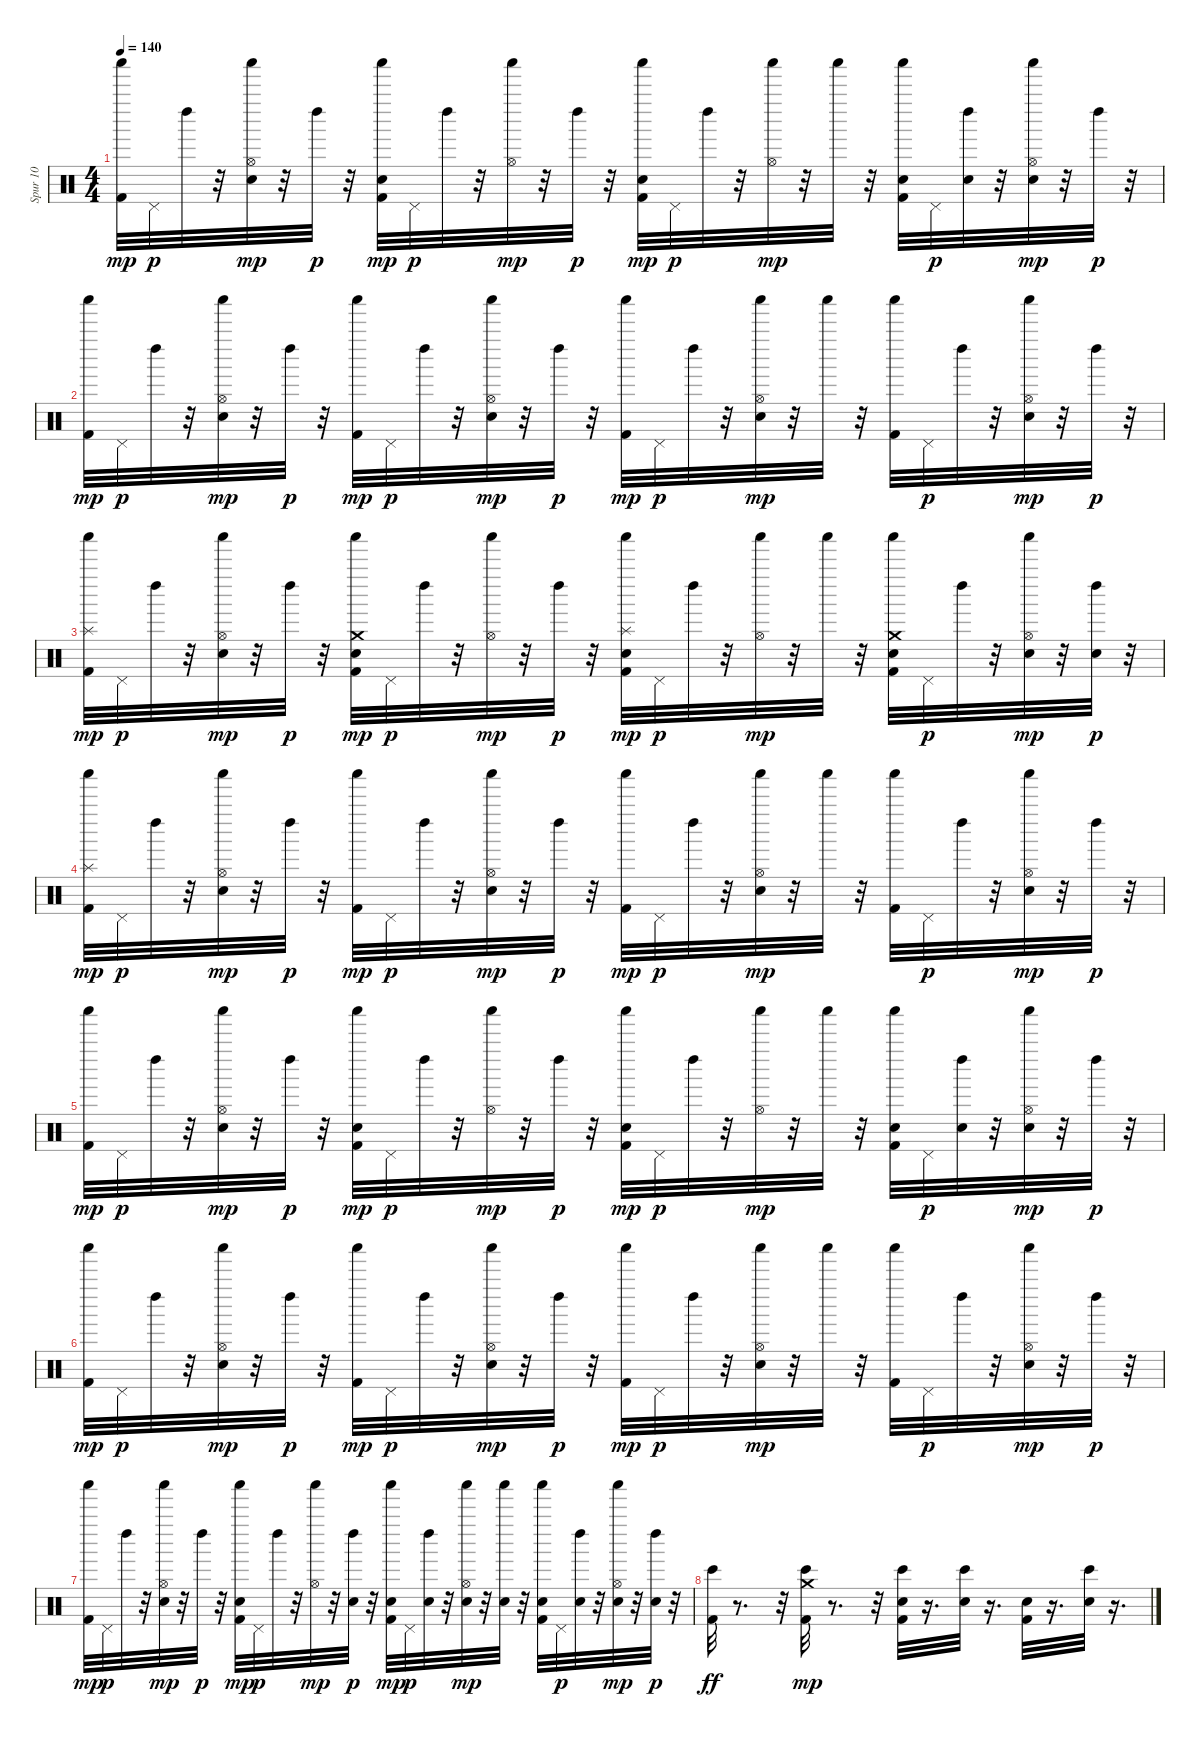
\track ("Spur 10" "Spur 10") {instrument percussion}
\staff {score}
\articulation defaults
\ts (4 4)
\tempo 140
\clef neutral
\ks c
("Kick (hit) 2" "Shaker (hit)").32{dy mp} "Pedal Hi-Hat (hit)".32{dy p} "Left Maraca (hit)".32 r.32 ("Hand Clap (hit)" "Hi-Hat (open)" "Shaker (hit)").32{dy mp} r.32 "Left Maraca (hit)".32{dy p} r.32 ("Kick (hit) 2" "Hand Clap (hit)" "Shaker (hit)").32{dy mp} "Pedal Hi-Hat (hit)".32{dy p} "Left Maraca (hit)".32 r.32 ("Hi-Hat (open)" "Shaker (hit)").32{dy mp} r.32 "Left Maraca (hit)".32{dy p} r.32 ("Kick (hit) 2" "Hand Clap (hit)" "Shaker (hit)").32{dy mp} "Pedal Hi-Hat (hit)".32{dy p} "Left Maraca (hit)".32 r.32 ("Hi-Hat (open)" "Shaker (hit)").32{dy mp} r.32 "Shaker (hit)".32 r.32 ("Kick (hit) 2" "Hand Clap (hit)" "Shaker (hit)").32 "Pedal Hi-Hat (hit)".32{dy p} ("Hand Clap (hit)" "Left Maraca (hit)").32 r.32 ("Hand Clap (hit)" "Hi-Hat (open)" "Shaker (hit)").32{dy mp} r.32 "Left Maraca (hit)".32{dy p} r.32 |
("Kick (hit) 2" "Shaker (hit)").32{dy mp} "Pedal Hi-Hat (hit)".32{dy p} "Left Maraca (hit)".32 r.32 ("Hand Clap (hit)" "Hi-Hat (open)" "Shaker (hit)").32{dy mp} r.32 "Left Maraca (hit)".32{dy p} r.32 ("Kick (hit) 2" "Shaker (hit)").32{dy mp} "Pedal Hi-Hat (hit)".32{dy p} "Left Maraca (hit)".32 r.32 ("Hand Clap (hit)" "Hi-Hat (open)" "Shaker (hit)").32{dy mp} r.32 "Left Maraca (hit)".32{dy p} r.32 ("Kick (hit) 2" "Shaker (hit)").32{dy mp} "Pedal Hi-Hat (hit)".32{dy p} "Left Maraca (hit)".32 r.32 ("Hand Clap (hit)" "Hi-Hat (open)" "Shaker (hit)").32{dy mp} r.32 "Shaker (hit)".32 r.32 ("Kick (hit) 2" "Shaker (hit)").32 "Pedal Hi-Hat (hit)".32{dy p} "Left Maraca (hit)".32 r.32 ("Hand Clap (hit)" "Hi-Hat (open)" "Shaker (hit)").32{dy mp} r.32 "Left Maraca (hit)".32{dy p} r.32 |
("Kick (hit) 2" "Splash (hit)" "Shaker (hit)").32{dy mp} "Pedal Hi-Hat (hit)".32{dy p} "Left Maraca (hit)".32 r.32 ("Hand Clap (hit)" "Hi-Hat (open)" "Shaker (hit)").32{dy mp} r.32 "Left Maraca (hit)".32{dy p} r.32 ("Kick (hit) 2" "Hand Clap (hit)" "Crash medium (hit)" "Shaker (hit)").32{dy mp} "Pedal Hi-Hat (hit)".32{dy p} "Left Maraca (hit)".32 r.32 ("Hi-Hat (open)" "Shaker (hit)").32{dy mp} r.32 "Left Maraca (hit)".32{dy p} r.32 ("Kick (hit) 2" "Hand Clap (hit)" "Splash (hit)" "Shaker (hit)").32{dy mp} "Pedal Hi-Hat (hit)".32{dy p} "Left Maraca (hit)".32 r.32 ("Hi-Hat (open)" "Shaker (hit)").32{dy mp} r.32 "Shaker (hit)".32 r.32 ("Kick (hit) 2" "Hand Clap (hit)" "Crash medium (hit)" "Shaker (hit)").32 "Pedal Hi-Hat (hit)".32{dy p} "Left Maraca (hit)".32 r.32 ("Hand Clap (hit)" "Hi-Hat (open)" "Shaker (hit)").32{dy mp} r.32 ("Hand Clap (hit)" "Left Maraca (hit)").32{dy p} r.32 |
("Kick (hit) 2" "Splash (hit)" "Shaker (hit)").32{dy mp} "Pedal Hi-Hat (hit)".32{dy p} "Left Maraca (hit)".32 r.32 ("Hand Clap (hit)" "Hi-Hat (open)" "Shaker (hit)").32{dy mp} r.32 "Left Maraca (hit)".32{dy p} r.32 ("Kick (hit) 2" "Shaker (hit)").32{dy mp} "Pedal Hi-Hat (hit)".32{dy p} "Left Maraca (hit)".32 r.32 ("Hand Clap (hit)" "Hi-Hat (open)" "Shaker (hit)").32{dy mp} r.32 "Left Maraca (hit)".32{dy p} r.32 ("Kick (hit) 2" "Shaker (hit)").32{dy mp} "Pedal Hi-Hat (hit)".32{dy p} "Left Maraca (hit)".32 r.32 ("Hand Clap (hit)" "Hi-Hat (open)" "Shaker (hit)").32{dy mp} r.32 "Shaker (hit)".32 r.32 ("Kick (hit) 2" "Shaker (hit)").32 "Pedal Hi-Hat (hit)".32{dy p} "Left Maraca (hit)".32 r.32 ("Hand Clap (hit)" "Hi-Hat (open)" "Shaker (hit)").32{dy mp} r.32 "Left Maraca (hit)".32{dy p} r.32 |
("Kick (hit) 2" "Shaker (hit)").32{dy mp} "Pedal Hi-Hat (hit)".32{dy p} "Left Maraca (hit)".32 r.32 ("Hand Clap (hit)" "Hi-Hat (open)" "Shaker (hit)").32{dy mp} r.32 "Left Maraca (hit)".32{dy p} r.32 ("Kick (hit) 2" "Hand Clap (hit)" "Shaker (hit)").32{dy mp} "Pedal Hi-Hat (hit)".32{dy p} "Left Maraca (hit)".32 r.32 ("Hi-Hat (open)" "Shaker (hit)").32{dy mp} r.32 "Left Maraca (hit)".32{dy p} r.32 ("Kick (hit) 2" "Hand Clap (hit)" "Shaker (hit)").32{dy mp} "Pedal Hi-Hat (hit)".32{dy p} "Left Maraca (hit)".32 r.32 ("Hi-Hat (open)" "Shaker (hit)").32{dy mp} r.32 "Shaker (hit)".32 r.32 ("Kick (hit) 2" "Hand Clap (hit)" "Shaker (hit)").32 "Pedal Hi-Hat (hit)".32{dy p} ("Hand Clap (hit)" "Left Maraca (hit)").32 r.32 ("Hand Clap (hit)" "Hi-Hat (open)" "Shaker (hit)").32{dy mp} r.32 "Left Maraca (hit)".32{dy p} r.32 |
("Kick (hit) 2" "Shaker (hit)").32{dy mp} "Pedal Hi-Hat (hit)".32{dy p} "Left Maraca (hit)".32 r.32 ("Hand Clap (hit)" "Hi-Hat (open)" "Shaker (hit)").32{dy mp} r.32 "Left Maraca (hit)".32{dy p} r.32 ("Kick (hit) 2" "Shaker (hit)").32{dy mp} "Pedal Hi-Hat (hit)".32{dy p} "Left Maraca (hit)".32 r.32 ("Hand Clap (hit)" "Hi-Hat (open)" "Shaker (hit)").32{dy mp} r.32 "Left Maraca (hit)".32{dy p} r.32 ("Kick (hit) 2" "Shaker (hit)").32{dy mp} "Pedal Hi-Hat (hit)".32{dy p} "Left Maraca (hit)".32 r.32 ("Hand Clap (hit)" "Hi-Hat (open)" "Shaker (hit)").32{dy mp} r.32 "Shaker (hit)".32 r.32 ("Kick (hit) 2" "Shaker (hit)").32 "Pedal Hi-Hat (hit)".32{dy p} "Left Maraca (hit)".32 r.32 ("Hand Clap (hit)" "Hi-Hat (open)" "Shaker (hit)").32{dy mp} r.32 "Left Maraca (hit)".32{dy p} r.32 |
("Kick (hit) 2" "Shaker (hit)").32{dy mp} "Pedal Hi-Hat (hit)".32{dy p} "Left Maraca (hit)".32 r.32 ("Hand Clap (hit)" "Hi-Hat (open)" "Shaker (hit)").32{dy mp} r.32 "Left Maraca (hit)".32{dy p} r.32 ("Kick (hit) 2" "Hand Clap (hit)" "Shaker (hit)").32{dy mp} "Pedal Hi-Hat (hit)".32{dy p} "Left Maraca (hit)".32 r.32 ("Hi-Hat (open)" "Shaker (hit)").32{dy mp} r.32 ("Hand Clap (hit)" "Left Maraca (hit)").32{dy p} r.32 ("Kick (hit) 2" "Hand Clap (hit)" "Shaker (hit)").32{dy mp} "Pedal Hi-Hat (hit)".32{dy p} ("Hand Clap (hit)" "Left Maraca (hit)").32 r.32 ("Hand Clap (hit)" "Hi-Hat (open)" "Shaker (hit)").32{dy mp} r.32 ("Hand Clap (hit)" "Shaker (hit)").32 r.32 ("Kick (hit) 2" "Hand Clap (hit)" "Shaker (hit)").32 "Pedal Hi-Hat (hit)".32{dy p} ("Hand Clap (hit)" "Left Maraca (hit)").32 r.32 ("Hand Clap (hit)" "Hi-Hat (open)" "Shaker (hit)").32{dy mp} r.32 ("Hand Clap (hit)" "Left Maraca (hit)").32{dy p} r.32 |
("Bongo High (hit)" "Kick (hit) 2").32{dy ff} r.8{d} r.32 ("Bongo High (hit)" "Kick (hit) 2" "Crash medium (hit)").32{dy mp} r.8{d} r.32 ("Bongo High (hit)" "Kick (hit) 2" "Hand Clap (hit)").32 r.16{d} ("Bongo High (hit)" "Hand Clap (hit)").32 r.16{d} ("Kick (hit) 2" "Hand Clap (hit)").32 r.16{d} ("Bongo High (hit)" "Hand Clap (hit)").32 r.16{d}
